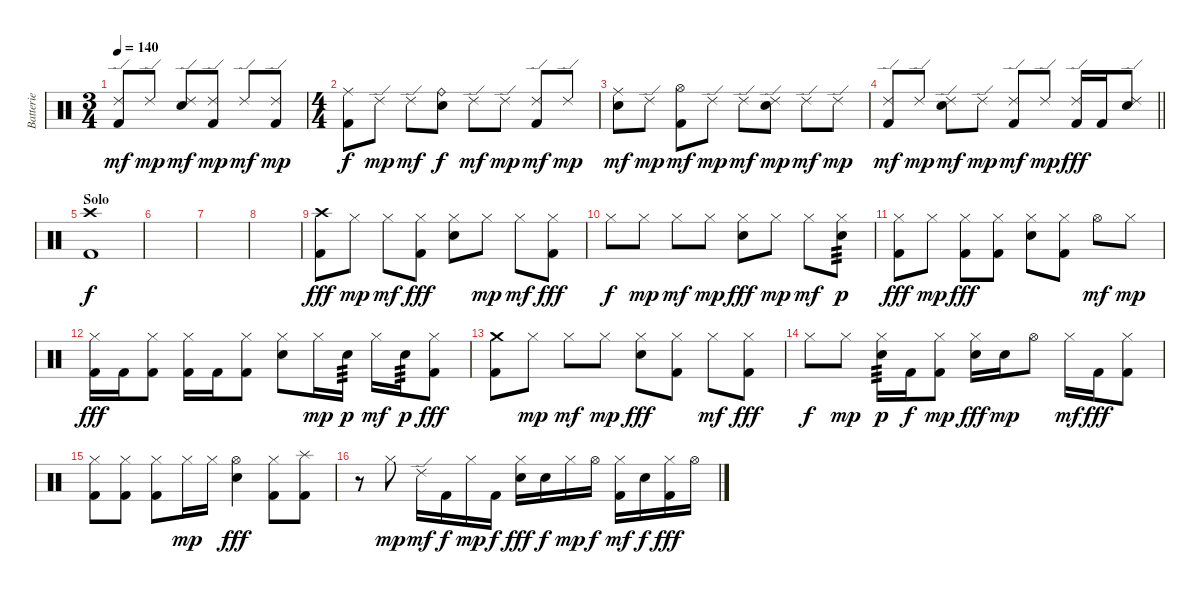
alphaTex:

\track ("Batterie" "Batterie") {instrument percussion}
\staff {score}
\articulation defaults
\ts (3 4)
\tempo 140
\clef neutral
\ks c
("Ride (edge) 2" "Kick (hit) 2").8{dy mf} "Ride (edge) 2".8{dy mp} ("Ride (edge) 2" "Electric Snare (hit)").8{dy mf} ("Ride (edge) 2" "Kick (hit) 2").8{dy mp} "Ride (edge) 2".8{dy mf} ("Ride (edge) 2" "Kick (hit) 2").8{dy mp} |
\ts (4 4)
("Ride (middle)" "Kick (hit) 2").8{dy f} "Ride (edge) 2".8{dy mp} "Ride (edge) 2".8{dy mf} ("Ride (bell)" "Electric Snare (hit)").8{dy f} "Ride (edge) 2".8{dy mf} "Ride (edge) 2".8{dy mp} ("Ride (edge) 2" "Kick (hit) 2").8{dy mf} "Ride (edge) 2".8{dy mp} |
("Ride (middle)" "Electric Snare (hit)").8{dy mf} "Ride (edge) 2".8{dy mp} ("Hi-Hat (open)" "Kick (hit) 2").8{dy mf} "Ride (edge) 2".8{dy mp} "Ride (edge) 2".8{dy mf} ("Ride (edge) 2" "Electric Snare (hit)").8{dy mp} "Ride (edge) 2".8{dy mf} "Ride (edge) 2".8{dy mp} |
\barLineRight lightlight
("Ride (edge) 2" "Kick (hit) 2").8{dy mf} "Ride (edge) 2".8{dy mp} ("Ride (edge) 2" "Electric Snare (hit)").8{dy mf} "Ride (edge) 2".8{dy mp} ("Ride (edge) 2" "Kick (hit) 2").8{dy mf} "Ride (edge) 2".8{dy mp} ("Ride (edge) 2" "Kick (hit) 2").16{dy fff} "Kick (hit) 2".16 ("Ride (edge) 2" "Electric Snare (hit)").8 |
\section ("" "Solo")
("Crash high (hit)" "Kick (hit) 2").1{dy f} |
|
|
|
("Crash high (hit)" "Kick (hit) 2").8{dy fff} "Hi-Hat (closed)".8{dy mp} "Hi-Hat (closed)".8{dy mf} ("Hi-Hat (closed)" "Kick (hit) 2").8{dy fff} ("Hi-Hat (closed)" "Electric Snare (hit)").8 "Hi-Hat (closed)".8{dy mp} "Hi-Hat (closed)".8{dy mf} ("Hi-Hat (closed)" "Kick (hit) 2").8{dy fff} |
"Hi-Hat (closed)".8{dy f} "Hi-Hat (closed)".8{dy mp} "Hi-Hat (closed)".8{dy mf} "Hi-Hat (closed)".8{dy mp} ("Hi-Hat (closed)" "Electric Snare (hit)").8{dy fff} "Hi-Hat (closed)".8{dy mp} "Hi-Hat (closed)".8{dy mf} ("Hi-Hat (closed)" "Electric Snare (hit)").8{tp 3 dy p} |
("Hi-Hat (closed)" "Kick (hit) 2").8{dy fff} "Hi-Hat (closed)".8{dy mp} ("Hi-Hat (closed)" "Kick (hit) 2").8{dy fff} ("Hi-Hat (closed)" "Kick (hit) 2").8 ("Hi-Hat (closed)" "Electric Snare (hit)").8 ("Hi-Hat (closed)" "Kick (hit) 2").8 "Hi-Hat (open)".8{dy mf} "Hi-Hat (closed)".8{dy mp} |
("Hi-Hat (closed)" "Kick (hit) 2").16{dy fff} "Kick (hit) 2".16 ("Hi-Hat (closed)" "Kick (hit) 2").8 ("Hi-Hat (closed)" "Kick (hit) 2").16 "Kick (hit) 2".16 ("Hi-Hat (closed)" "Kick (hit) 2").8 ("Hi-Hat (closed)" "Electric Snare (hit)").8 "Hi-Hat (closed)".16{dy mp} "Electric Snare (hit)".16{tp 3 dy p} "Hi-Hat (closed)".16{dy mf} "Electric Snare (hit)".16{tp 3 dy p} ("Hi-Hat (closed)" "Kick (hit) 2").8{dy fff} |
("Crash medium (hit)" "Kick (hit) 2").8 "Hi-Hat (closed)".8{dy mp} "Hi-Hat (closed)".8{dy mf} "Hi-Hat (closed)".8{dy mp} ("Hi-Hat (closed)" "Electric Snare (hit)").8{dy fff} ("Hi-Hat (closed)" "Kick (hit) 2").8 "Hi-Hat (closed)".8{dy mf} ("Hi-Hat (closed)" "Kick (hit) 2").8{dy fff} |
"Hi-Hat (closed)".8{dy f} "Hi-Hat (closed)".8{dy mp} ("Hi-Hat (closed)" "Electric Snare (hit)").16{tp 3 dy p} "Kick (hit) 2".16{dy f} ("Hi-Hat (closed)" "Kick (hit) 2").8{dy mp} ("Hi-Hat (closed)" "Electric Snare (hit)").16{dy fff} "Electric Snare (hit)".16{dy mp} "Hi-Hat (open)".8 "Hi-Hat (closed)".16{dy mf} "Kick (hit) 2".16{dy fff} ("Hi-Hat (closed)" "Kick (hit) 2").8 |
("Hi-Hat (closed)" "Kick (hit) 2").8 ("Hi-Hat (closed)" "Kick (hit) 2").8 ("Hi-Hat (closed)" "Kick (hit) 2").8 "Hi-Hat (closed)".16{dy mp} "Hi-Hat (closed)".16 ("Hi-Hat (open)" "Electric Snare (hit)").4{dy fff} ("Hi-Hat (closed)" "Kick (hit) 2").8 ("Splash (hit)" "Kick (hit) 2").8 |
r.8 "Hi-Hat (closed)".8{dy mp} "Ride (edge) 2".16{dy mf} "Kick (hit) 2".16{dy f} "Hi-Hat (closed)".16{dy mp} "Kick (hit) 2".16{dy f} ("Hi-Hat (closed)" "Electric Snare (hit)").16{dy fff} "Electric Snare (hit)".16{dy f} "Hi-Hat (closed)".16{dy mp} "Hi-Hat (open)".16{dy f} ("Hi-Hat (closed)" "Kick (hit) 2").16{dy mf} "Electric Snare (hit)".16{dy f} ("Hi-Hat (closed)" "Kick (hit) 2").16{dy fff} "Hi-Hat (open)".16
